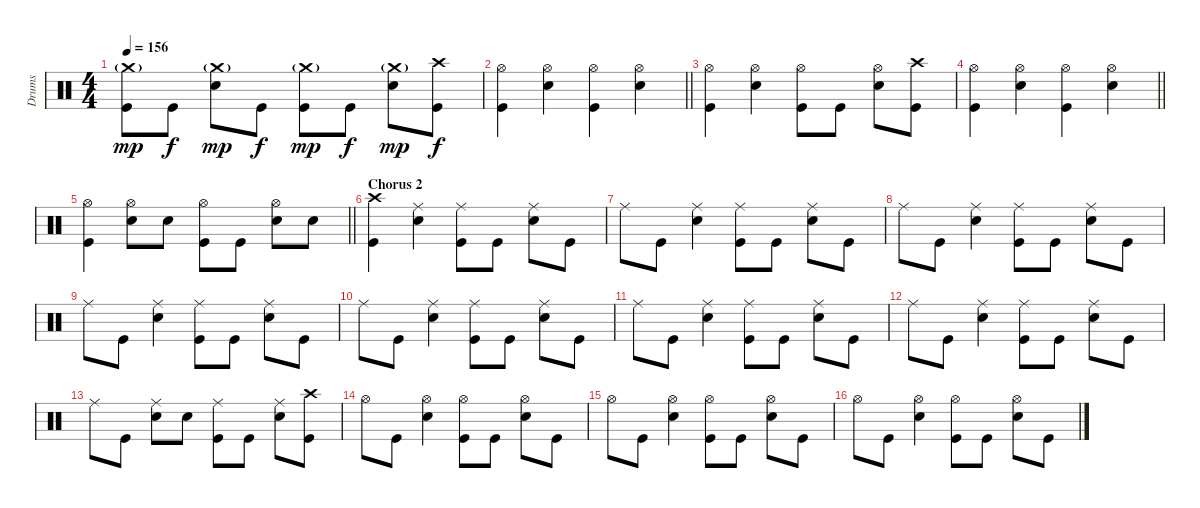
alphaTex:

\track ("Drums" "Drums") {instrument percussion}
\staff {score}
\articulation defaults
\ts (4 4)
\tempo 156
\clef neutral
\ks c
("Crash medium (hit)"{g} "Kick (hit)").8{dy mp} "Kick (hit)".8{dy f} ("Crash medium (hit)"{g} "Snare (hit) 2").8{dy mp} "Kick (hit)".8{dy f} ("Crash medium (hit)"{g} "Kick (hit)").8{dy mp} "Kick (hit)".8{dy f} ("Crash medium (hit)"{g} "Snare (hit) 2").8{dy mp} ("Crash high (hit)" "Kick (hit)").8{dy f} |
\barLineRight lightlight
("Hi-Hat (open)" "Kick (hit)").4 ("Hi-Hat (open)" "Snare (hit) 2").4 ("Hi-Hat (open)" "Kick (hit)").4 ("Hi-Hat (open)" "Snare (hit) 2").4 |
("Hi-Hat (open)" "Kick (hit)").4 ("Hi-Hat (open)" "Snare (hit) 2").4 ("Hi-Hat (open)" "Kick (hit)").8 "Kick (hit)".8 ("Hi-Hat (open)" "Snare (hit) 2").8 ("Crash high (hit)" "Kick (hit)").8 |
\barLineRight lightlight
("Hi-Hat (open)" "Kick (hit)").4 ("Hi-Hat (open)" "Snare (hit) 2").4 ("Hi-Hat (open)" "Kick (hit)").4 ("Hi-Hat (open)" "Snare (hit) 2").4 |
\barLineRight lightlight
("Hi-Hat (open)" "Kick (hit)").4 ("Hi-Hat (open)" "Snare (hit) 2").8 "Snare (hit) 2".8 ("Hi-Hat (open)" "Kick (hit)").8 "Kick (hit)".8 ("Hi-Hat (open)" "Snare (hit) 2").8 "Snare (hit) 2".8 |
\section ("" "Chorus 2")
("Crash high (hit)" "Kick (hit)").4 ("Ride (middle)" "Snare (hit) 2").4 ("Ride (middle)" "Kick (hit)").8 "Kick (hit)".8 ("Ride (middle)" "Snare (hit) 2").8 "Kick (hit)".8 |
"Ride (middle)".8 "Kick (hit)".8 ("Ride (middle)" "Snare (hit) 2").4 ("Ride (middle)" "Kick (hit)").8 "Kick (hit)".8 ("Ride (middle)" "Snare (hit) 2").8 "Kick (hit)".8 |
"Ride (middle)".8 "Kick (hit)".8 ("Ride (middle)" "Snare (hit) 2").4 ("Ride (middle)" "Kick (hit)").8 "Kick (hit)".8 ("Ride (middle)" "Snare (hit) 2").8 "Kick (hit)".8 |
"Ride (middle)".8 "Kick (hit)".8 ("Ride (middle)" "Snare (hit) 2").4 ("Ride (middle)" "Kick (hit)").8 "Kick (hit)".8 ("Ride (middle)" "Snare (hit) 2").8 "Kick (hit)".8 |
"Ride (middle)".8 "Kick (hit)".8 ("Ride (middle)" "Snare (hit) 2").4 ("Ride (middle)" "Kick (hit)").8 "Kick (hit)".8 ("Ride (middle)" "Snare (hit) 2").8 "Kick (hit)".8 |
"Ride (middle)".8 "Kick (hit)".8 ("Ride (middle)" "Snare (hit) 2").4 ("Ride (middle)" "Kick (hit)").8 "Kick (hit)".8 ("Ride (middle)" "Snare (hit) 2").8 "Kick (hit)".8 |
"Ride (middle)".8 "Kick (hit)".8 ("Ride (middle)" "Snare (hit) 2").4 ("Ride (middle)" "Kick (hit)").8 "Kick (hit)".8 ("Ride (middle)" "Snare (hit) 2").8 "Kick (hit)".8 |
"Ride (middle)".8 "Kick (hit)".8 ("Ride (middle)" "Snare (hit) 2").8 "Snare (hit) 2".8 ("Ride (middle)" "Kick (hit)").8 "Kick (hit)".8 ("Ride (middle)" "Snare (hit) 2").8 ("Crash high (hit)" "Kick (hit)").8 |
"Hi-Hat (open)".8 "Kick (hit)".8 ("Hi-Hat (open)" "Snare (hit) 2").4 ("Hi-Hat (open)" "Kick (hit)").8 "Kick (hit)".8 ("Hi-Hat (open)" "Snare (hit) 2").8 "Kick (hit)".8 |
"Hi-Hat (open)".8 "Kick (hit)".8 ("Hi-Hat (open)" "Snare (hit) 2").4 ("Hi-Hat (open)" "Kick (hit)").8 "Kick (hit)".8 ("Hi-Hat (open)" "Snare (hit) 2").8 "Kick (hit)".8 |
"Hi-Hat (open)".8 "Kick (hit)".8 ("Hi-Hat (open)" "Snare (hit) 2").4 ("Hi-Hat (open)" "Kick (hit)").8 "Kick (hit)".8 ("Hi-Hat (open)" "Snare (hit) 2").8 "Kick (hit)".8
